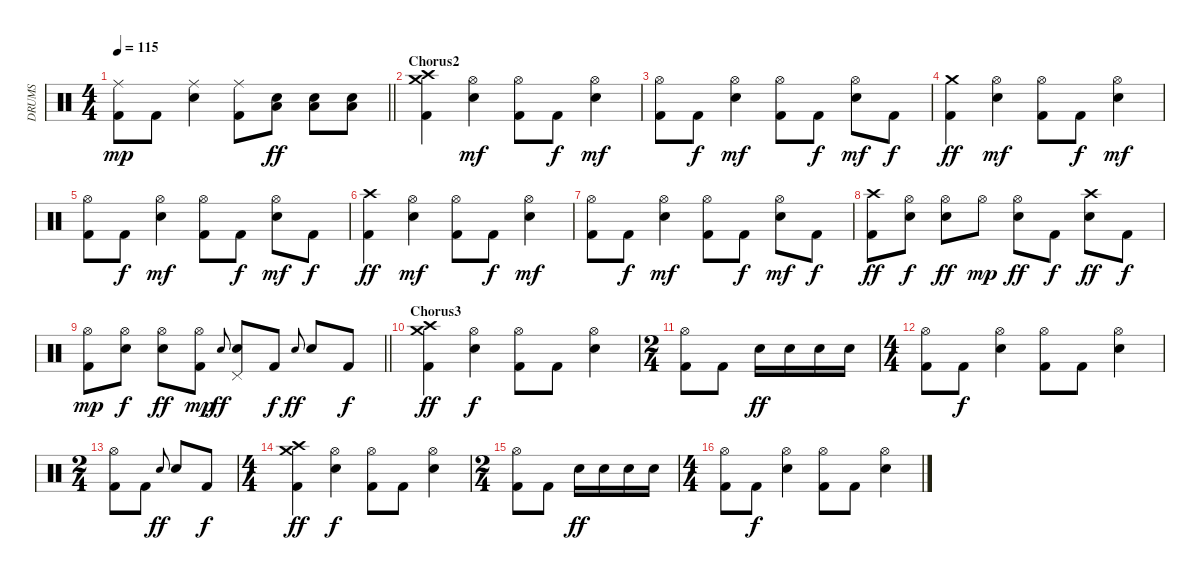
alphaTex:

\track ("DRUMS" "DRUMS") {instrument percussion}
\staff {score}
\articulation defaults
\ts (4 4)
\tempo 115
\clef neutral
\barLineRight lightlight
\ks c
("Ride (middle)" "Kick (hit) 2").8{dy mp} "Kick (hit) 2".8 ("Ride (middle)" "Snare (hit) 2").4 ("Ride (middle)" "Kick (hit) 2").8 ("Snare (hit) 2" "Low Floor Tom (hit)").8{dy ff} ("Snare (hit) 2" "Low Floor Tom (hit)").8 ("Snare (hit) 2" "Low Floor Tom (hit)").8 |
\section ("" "Chorus2")
("Crash high (hit)" "Crash medium (hit)" "Kick (hit) 2").4 ("Hi-Hat (open)" "Snare (hit) 2").4{dy mf} ("Hi-Hat (open)" "Kick (hit) 2").8 "Kick (hit) 2".8{dy f} ("Hi-Hat (open)" "Snare (hit) 2").4{dy mf} |
("Hi-Hat (open)" "Kick (hit) 2").8 "Kick (hit) 2".8{dy f} ("Hi-Hat (open)" "Snare (hit) 2").4{dy mf} ("Hi-Hat (open)" "Kick (hit) 2").8 "Kick (hit) 2".8{dy f} ("Hi-Hat (open)" "Snare (hit) 2").8{dy mf} "Kick (hit) 2".8{dy f} |
("Crash medium (hit)" "Kick (hit) 2").4{dy ff} ("Hi-Hat (open)" "Snare (hit) 2").4{dy mf} ("Hi-Hat (open)" "Kick (hit) 2").8 "Kick (hit) 2".8{dy f} ("Hi-Hat (open)" "Snare (hit) 2").4{dy mf} |
("Hi-Hat (open)" "Kick (hit) 2").8 "Kick (hit) 2".8{dy f} ("Hi-Hat (open)" "Snare (hit) 2").4{dy mf} ("Hi-Hat (open)" "Kick (hit) 2").8 "Kick (hit) 2".8{dy f} ("Hi-Hat (open)" "Snare (hit) 2").8{dy mf} "Kick (hit) 2".8{dy f} |
("Crash high (hit)" "Kick (hit) 2").4{dy ff} ("Hi-Hat (open)" "Snare (hit) 2").4{dy mf} ("Hi-Hat (open)" "Kick (hit) 2").8 "Kick (hit) 2".8{dy f} ("Hi-Hat (open)" "Snare (hit) 2").4{dy mf} |
("Hi-Hat (open)" "Kick (hit) 2").8 "Kick (hit) 2".8{dy f} ("Hi-Hat (open)" "Snare (hit) 2").4{dy mf} ("Hi-Hat (open)" "Kick (hit) 2").8 "Kick (hit) 2".8{dy f} ("Hi-Hat (open)" "Snare (hit) 2").8{dy mf} "Kick (hit) 2".8{dy f} |
("Crash high (hit)" "Kick (hit) 2").8{dy ff} ("Hi-Hat (open)" "Snare (hit) 2").8{dy f} ("Hi-Hat (open)" "Snare (hit) 2").8{dy ff} "Hi-Hat (open)".8{dy mp} ("Hi-Hat (open)" "Snare (hit) 2").8{dy ff} "Kick (hit) 2".8{dy f} ("Crash high (hit)" "Snare (hit) 2").8{dy ff} "Kick (hit) 2".8{dy f} |
\barLineRight lightlight
("Hi-Hat (open)" "Kick (hit) 2").8{dy mp} ("Hi-Hat (open)" "Snare (hit) 2").8{dy f} ("Hi-Hat (open)" "Snare (hit) 2").8{dy ff} ("Hi-Hat (open)" "Kick (hit) 2").8{dy mp} "Electric Snare (hit)".8{gr onbeat dy ff} ("Pedal Hi-Hat (hit)" "Snare (hit) 2").8 "Kick (hit) 2".8{dy f} "Electric Snare (hit)".8{gr onbeat dy ff} "Snare (hit) 2".8 "Kick (hit) 2".8{dy f} |
\section ("" "Chorus3")
("Crash medium (hit)" "Crash high (hit)" "Kick (hit) 2").4{dy ff} ("Hi-Hat (open)" "Snare (hit) 2").4{dy f} ("Hi-Hat (open)" "Kick (hit) 2").8 "Kick (hit) 2".8 ("Hi-Hat (open)" "Snare (hit) 2").4 |
\ts (2 4)
("Hi-Hat (open)" "Kick (hit) 2").8 "Kick (hit) 2".8 "Electric Snare (hit)".16{dy ff} "Snare (hit) 2".16 "Electric Snare (hit)".16 "Snare (hit) 2".16 |
\ts (4 4)
("Hi-Hat (open)" "Kick (hit) 2").8 "Kick (hit) 2".8{dy f} ("Hi-Hat (open)" "Snare (hit) 2").4 ("Hi-Hat (open)" "Kick (hit) 2").8 "Kick (hit) 2".8 ("Hi-Hat (open)" "Snare (hit) 2").4 |
\ts (2 4)
("Hi-Hat (open)" "Kick (hit) 2").8 "Kick (hit) 2".8 "Electric Snare (hit)".8{gr onbeat dy ff} "Snare (hit) 2".8 "Kick (hit) 2".8{dy f} |
\ts (4 4)
("Crash medium (hit)" "Crash high (hit)" "Kick (hit) 2").4{dy ff} ("Hi-Hat (open)" "Snare (hit) 2").4{dy f} ("Hi-Hat (open)" "Kick (hit) 2").8 "Kick (hit) 2".8 ("Hi-Hat (open)" "Snare (hit) 2").4 |
\ts (2 4)
("Hi-Hat (open)" "Kick (hit) 2").8 "Kick (hit) 2".8 "Electric Snare (hit)".16{dy ff} "Snare (hit) 2".16 "Electric Snare (hit)".16 "Snare (hit) 2".16 |
\ts (4 4)
("Hi-Hat (open)" "Kick (hit) 2").8 "Kick (hit) 2".8{dy f} ("Hi-Hat (open)" "Snare (hit) 2").4 ("Hi-Hat (open)" "Kick (hit) 2").8 "Kick (hit) 2".8 ("Hi-Hat (open)" "Snare (hit) 2").4
